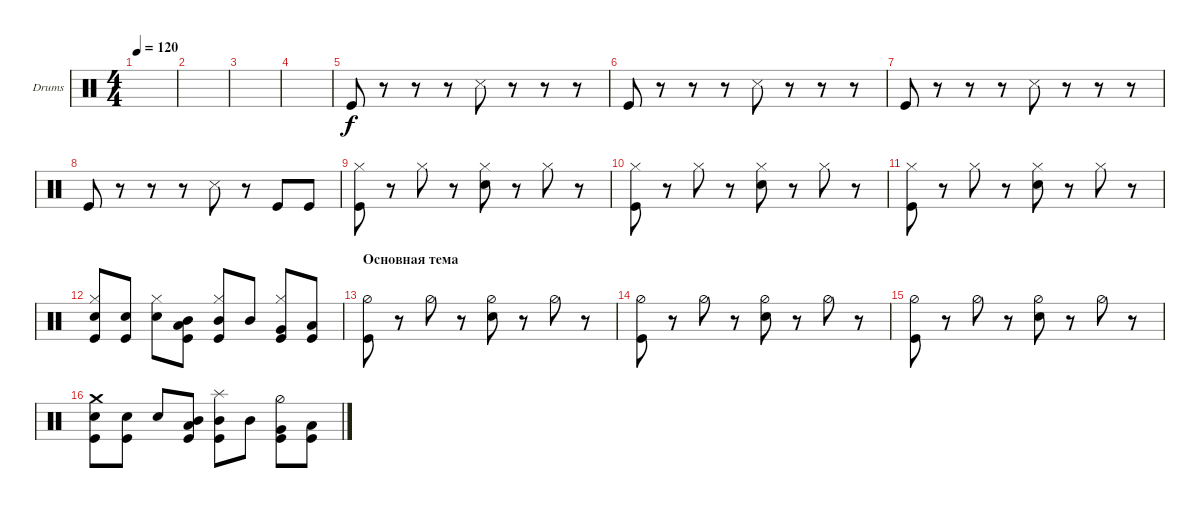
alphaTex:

\bracketExtendMode groupsimilarinstruments
\firstSystemTrackNameOrientation horizontal
\otherSystemsTrackNameOrientation horizontal
\track ("Drumkit" "Drums") {instrument percussion}
\staff {score}
\articulation defaults
\ts (4 4)
\tempo 120
\clef neutral
\ks c
|
|
|
|
"Kick (hit)".8 r.8 r.8 r.8 "Snare (side stick) 3".8 r.8 r.8 r.8 |
"Kick (hit)".8 r.8 r.8 r.8 "Snare (side stick) 3".8 r.8 r.8 r.8 |
"Kick (hit)".8 r.8 r.8 r.8 "Snare (side stick) 3".8 r.8 r.8 r.8 |
"Kick (hit)".8 r.8 r.8 r.8 "Snare (side stick) 3".8 r.8 "Kick (hit)".8 "Kick (hit)".8 |
("Kick (hit)" "Hi-Hat (closed)").8 r.8 "Hi-Hat (closed)".8 r.8 ("Snare (hit) 2" "Hi-Hat (closed)").8 r.8 "Hi-Hat (closed)".8 r.8 |
("Kick (hit)" "Hi-Hat (closed)").8 r.8 "Hi-Hat (closed)".8 r.8 ("Snare (hit) 2" "Hi-Hat (closed)").8 r.8 "Hi-Hat (closed)".8 r.8 |
("Kick (hit)" "Hi-Hat (closed)").8 r.8 "Hi-Hat (closed)".8 r.8 ("Snare (hit) 2" "Hi-Hat (closed)").8 r.8 "Hi-Hat (closed)".8 r.8 |
("Kick (hit)" "Hi-Hat (closed)" "Snare (hit) 2").8 ("Snare (hit) 2" "Kick (hit)").8 ("Hi-Hat (closed)" "Snare (hit) 2").8 ("Kick (hit)" "Low Tom (hit)" "Mid Tom (hit)").8 ("Hi-Hat (closed)" "Kick (hit)" "Mid Tom (hit)").8 "Mid Tom (hit)".8 ("Kick (hit)" "Hi-Hat (closed)" "Very Low Tom (hit)").8 ("Kick (hit)" "Low Tom (hit)").8 |
\section ("" "Основная тема")
("Kick (hit)" "Hi-Hat (half)").8 r.8 "Hi-Hat (half)".8 r.8 ("Snare (hit) 2" "Hi-Hat (half)").8 r.8 "Hi-Hat (half)".8 r.8 |
("Kick (hit)" "Hi-Hat (half)").8 r.8 "Hi-Hat (half)".8 r.8 ("Snare (hit) 2" "Hi-Hat (half)").8 r.8 "Hi-Hat (half)".8 r.8 |
("Kick (hit)" "Hi-Hat (half)").8 r.8 "Hi-Hat (half)".8 r.8 ("Snare (hit) 2" "Hi-Hat (half)").8 r.8 "Hi-Hat (half)".8 r.8 |
("Kick (hit)" "Snare (hit) 2" "Crash medium (hit)").8 ("Snare (hit) 2" "Kick (hit)").8 "Snare (hit) 2".8 ("Kick (hit)" "Low Tom (hit)" "Mid Tom (hit)").8 ("Kick (hit)" "Mid Tom (hit)" "Splash (hit)").8 "Mid Tom (hit)".8 ("Kick (hit)" "Hi-Hat (half)" "Very Low Tom (hit)").8 ("Kick (hit)" "Low Tom (hit)").8
